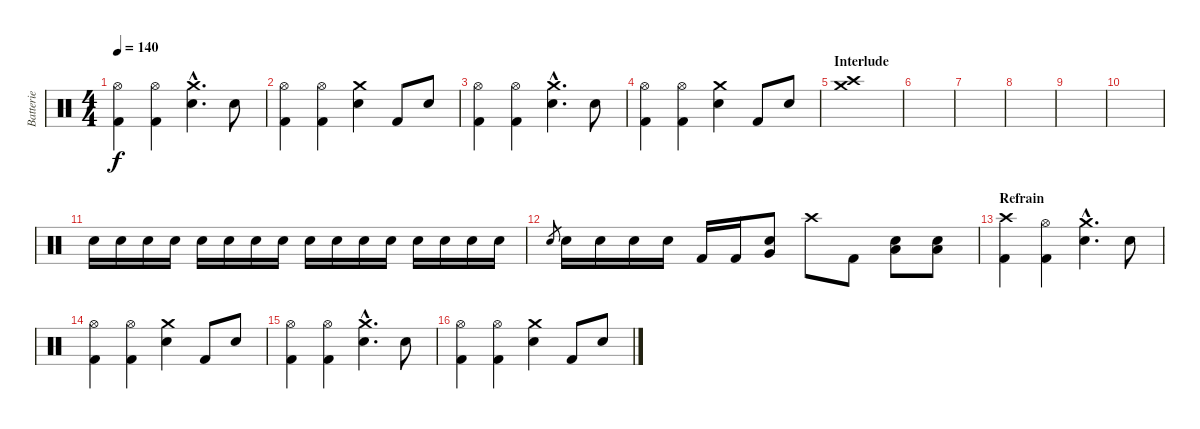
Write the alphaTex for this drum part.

\track ("Batterie" "Batterie") {instrument percussion}
\staff {score}
\articulation defaults
\ts (4 4)
\tempo 140
\clef neutral
\ks c
("Hi-Hat (open)" "Kick (hit) 2").4{dy f} ("Hi-Hat (open)" "Kick (hit) 2").4 ("Crash medium (hit)"{hac} "Snare (hit) 2"{hac}).4{d} "Snare (hit) 2".8 |
("Hi-Hat (open)" "Kick (hit) 2").4 ("Hi-Hat (open)" "Kick (hit) 2").4 ("Crash medium (hit)" "Snare (hit) 2").4 "Kick (hit) 2".8 "Snare (hit) 2".8 |
("Hi-Hat (open)" "Kick (hit) 2").4 ("Hi-Hat (open)" "Kick (hit) 2").4 ("Crash medium (hit)"{hac} "Snare (hit) 2"{hac}).4{d} "Snare (hit) 2".8 |
("Hi-Hat (open)" "Kick (hit) 2").4 ("Hi-Hat (open)" "Kick (hit) 2").4 ("Crash medium (hit)" "Snare (hit) 2").4 "Kick (hit) 2".8 "Snare (hit) 2".8 |
\section ("" "Interlude")
("Crash high (hit)" "Crash medium (hit)").1 |
|
|
|
|
|
"Electric Snare (hit)".16{volume 14} "Electric Snare (hit)".16 "Electric Snare (hit)".16 "Electric Snare (hit)".16 "Electric Snare (hit)".16 "Electric Snare (hit)".16 "Electric Snare (hit)".16 "Electric Snare (hit)".16 "Electric Snare (hit)".16 "Electric Snare (hit)".16 "Electric Snare (hit)".16 "Electric Snare (hit)".16 "Electric Snare (hit)".16 "Electric Snare (hit)".16 "Electric Snare (hit)".16 "Electric Snare (hit)".16 |
"Electric Snare (hit)".8{gr} "Electric Snare (hit)".16 "Electric Snare (hit)".16 "Electric Snare (hit)".16 "Electric Snare (hit)".16 "Kick (hit) 2".16 "Kick (hit) 2".16 ("Electric Snare (hit)" "Very Low Tom (hit)").8 "Crash high (hit)".8 "Kick (hit) 2".8 ("Electric Snare (hit)" "Low Tom (hit)").8 ("Electric Snare (hit)" "Low Tom (hit)").8 |
\section ("" "Refrain")
("Crash high (hit)" "Kick (hit) 2").4 ("Hi-Hat (open)" "Kick (hit) 2").4 ("Crash medium (hit)"{hac} "Snare (hit) 2"{hac}).4{d} "Snare (hit) 2".8 |
("Hi-Hat (open)" "Kick (hit) 2").4 ("Hi-Hat (open)" "Kick (hit) 2").4 ("Crash medium (hit)" "Snare (hit) 2").4 "Kick (hit) 2".8 "Snare (hit) 2".8 |
("Hi-Hat (open)" "Kick (hit) 2").4 ("Hi-Hat (open)" "Kick (hit) 2").4 ("Crash medium (hit)"{hac} "Snare (hit) 2"{hac}).4{d} "Snare (hit) 2".8 |
("Hi-Hat (open)" "Kick (hit) 2").4 ("Hi-Hat (open)" "Kick (hit) 2").4 ("Crash medium (hit)" "Snare (hit) 2").4 "Kick (hit) 2".8 "Snare (hit) 2".8
